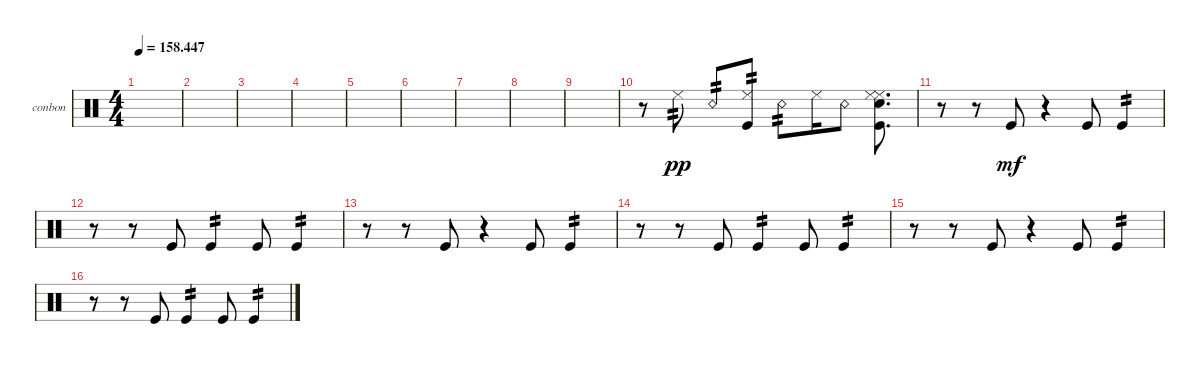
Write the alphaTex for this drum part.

\defaultSystemsLayout 4
\bracketExtendMode groupsimilarinstruments
\firstSystemTrackNameOrientation horizontal
\otherSystemsTrackNameOrientation horizontal
\track ("Bongos N Congas" "conbon") {instrument percussion}
\staff {score}
\articulation defaults
\ts (4 4)
\tempo
158.447
\accidentals auto
\clef neutral
\ottava regular
\simile none
\ks c
|
|
|
|
|
|
|
|
|
r.8 "Cowbell low (tip)".8{tp 2 dy pp} "Snare (rim shot)".8{tp 2} ("Kick (hit)" "Cowbell low (tip)").8{tp 2} "Snare (rim shot)".8{tp 2} "Cowbell low (tip)".16 "Snare (rim shot)".8 ("Cowbell low (tip)" "Kick (hit)" "Snare (hit) 2" "Cowbell low (tip)").8{d} |
r.8 r.8 "Kick (hit)".8{dy mf} r.4 "Kick (hit)".8 "Kick (hit)".4{tp 2} |
r.8 r.8 "Kick (hit)".8 "Kick (hit)".4{tp 2} "Kick (hit)".8 "Kick (hit)".4{tp 2} |
r.8 r.8 "Kick (hit)".8 r.4 "Kick (hit)".8 "Kick (hit)".4{tp 2} |
r.8 r.8 "Kick (hit)".8 "Kick (hit)".4{tp 2} "Kick (hit)".8 "Kick (hit)".4{tp 2} |
r.8 r.8 "Kick (hit)".8 r.4 "Kick (hit)".8 "Kick (hit)".4{tp 2} |
r.8 r.8 "Kick (hit)".8 "Kick (hit)".4{tp 2} "Kick (hit)".8 "Kick (hit)".4{tp 2}
